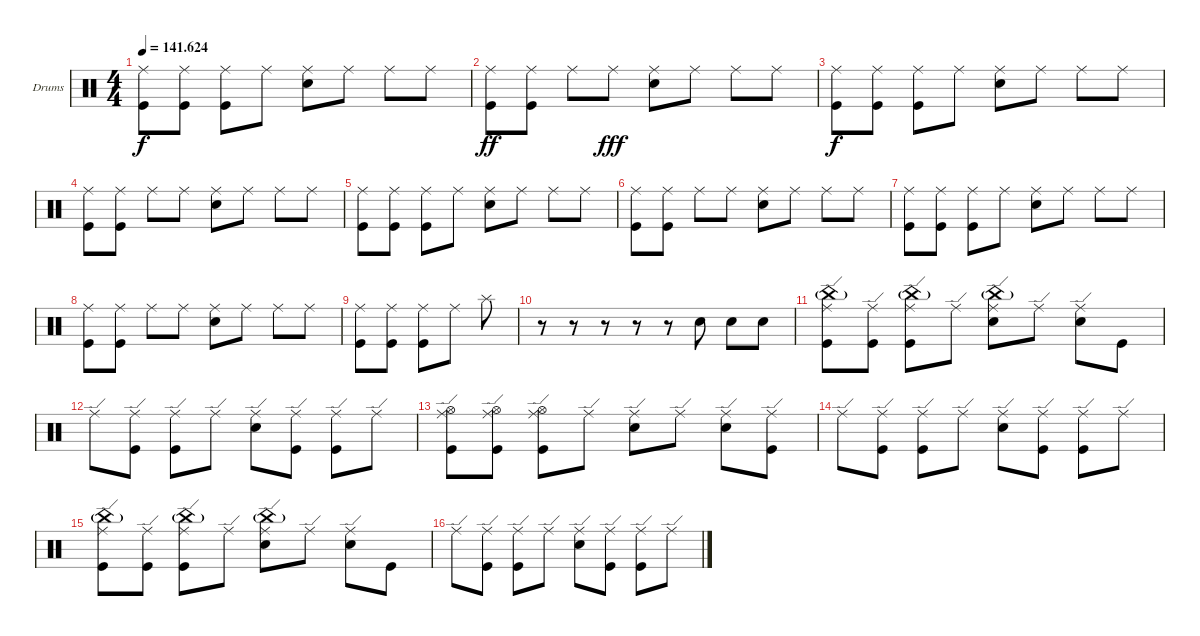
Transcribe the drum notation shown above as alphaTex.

\defaultSystemsLayout 4
\bracketExtendMode groupsimilarinstruments
\firstSystemTrackNameOrientation horizontal
\otherSystemsTrackNameOrientation horizontal
\track ("Drumkit" "Drums") {instrument percussion}
\staff {score}
\articulation defaults
\ts (4 4)
\tempo
141.624
\accidentals auto
\clef neutral
\ottava regular
\simile none
\ks c
("Ride (middle)" "Kick (hit)").8{dy f} ("Ride (middle)" "Kick (hit)").8 ("Ride (middle)" "Kick (hit)").8 "Ride (middle)".8 ("Ride (middle)" "Snare (hit) 2").8 "Ride (middle)".8 "Ride (middle)".8 "Ride (middle)".8 |
("Ride (middle)" "Kick (hit)").8{dy ff} ("Ride (middle)" "Kick (hit)").8 "Ride (middle)".8 "Ride (middle)".8{dy fff} ("Ride (middle)" "Snare (hit) 2").8 "Ride (middle)".8 "Ride (middle)".8 "Ride (middle)".8 |
("Ride (middle)" "Kick (hit)").8{dy f} ("Ride (middle)" "Kick (hit)").8 ("Ride (middle)" "Kick (hit)").8 "Ride (middle)".8 ("Ride (middle)" "Snare (hit) 2").8 "Ride (middle)".8 "Ride (middle)".8 "Ride (middle)".8 |
("Ride (middle)" "Kick (hit)").8 ("Ride (middle)" "Kick (hit)").8 "Ride (middle)".8 "Ride (middle)".8 ("Ride (middle)" "Snare (hit) 2").8 "Ride (middle)".8 "Ride (middle)".8 "Ride (middle)".8 |
("Ride (middle)" "Kick (hit)").8 ("Ride (middle)" "Kick (hit)").8 ("Ride (middle)" "Kick (hit)").8 "Ride (middle)".8 ("Ride (middle)" "Snare (hit) 2").8 "Ride (middle)".8 "Ride (middle)".8 "Ride (middle)".8 |
("Ride (middle)" "Kick (hit)").8 ("Ride (middle)" "Kick (hit)").8 "Ride (middle)".8 "Ride (middle)".8 ("Ride (middle)" "Snare (hit) 2").8 "Ride (middle)".8 "Ride (middle)".8 "Ride (middle)".8 |
("Ride (middle)" "Kick (hit)").8 ("Ride (middle)" "Kick (hit)").8 ("Ride (middle)" "Kick (hit)").8 "Ride (middle)".8 ("Ride (middle)" "Snare (hit) 2").8 "Ride (middle)".8 "Ride (middle)".8 "Ride (middle)".8 |
("Ride (middle)" "Kick (hit)").8 ("Ride (middle)" "Kick (hit)").8 "Ride (middle)".8 "Ride (middle)".8 ("Ride (middle)" "Snare (hit) 2").8 "Ride (middle)".8 "Ride (middle)".8 "Ride (middle)".8 |
("Ride (middle)" "Kick (hit)").8 ("Ride (middle)" "Kick (hit)").8 ("Ride (middle)" "Kick (hit)").8 "Ride (middle)".8 "Splash (hit)".8 |
r.8 r.8 r.8 r.8 r.8 "Snare (hit) 2".8 "Snare (hit) 2".8 "Snare (hit) 2".8 |
("Kick (hit)" "Ride (edge)" "China (hit)"{g}).8 ("Kick (hit)" "Ride (edge)").8 ("Kick (hit)" "Ride (edge)" "China (hit)"{g}).8 "Ride (edge)".8 ("Snare (hit) 2" "Ride (edge)" "China (hit)"{g}).8 "Ride (edge)".8 ("Ride (edge)" "Snare (hit) 2").8 "Kick (hit)".8 |
"Ride (edge)".8 ("Kick (hit)" "Ride (edge)").8 ("Ride (edge)" "Kick (hit)").8 "Ride (edge)".8 ("Ride (edge)" "Snare (hit) 2").8 ("Kick (hit)" "Ride (edge)").8 ("Ride (edge)" "Kick (hit)").8 "Ride (edge)".8 |
("Hi-Hat (open)" "Kick (hit)" "Ride (edge)").8 ("Hi-Hat (open)" "Kick (hit)" "Ride (edge)").8 ("Hi-Hat (open)" "Kick (hit)" "Ride (edge)").8 "Ride (edge)".8 ("Ride (edge)" "Snare (hit) 2").8 "Ride (edge)".8 ("Ride (edge)" "Snare (hit) 2").8 ("Ride (edge)" "Kick (hit)").8 |
"Ride (edge)".8 ("Kick (hit)" "Ride (edge)").8 ("Ride (edge)" "Kick (hit)").8 "Ride (edge)".8 ("Ride (edge)" "Snare (hit) 2").8 ("Kick (hit)" "Ride (edge)").8 ("Ride (edge)" "Kick (hit)").8 "Ride (edge)".8 |
("Kick (hit)" "Ride (edge)" "China (hit)"{g}).8 ("Kick (hit)" "Ride (edge)").8 ("Kick (hit)" "Ride (edge)" "China (hit)"{g}).8 "Ride (edge)".8 ("Snare (hit) 2" "Ride (edge)" "China (hit)"{g}).8 "Ride (edge)".8 ("Ride (edge)" "Snare (hit) 2").8 "Kick (hit)".8 |
"Ride (edge)".8 ("Kick (hit)" "Ride (edge)").8 ("Ride (edge)" "Kick (hit)").8 "Ride (edge)".8 ("Ride (edge)" "Snare (hit) 2").8 ("Kick (hit)" "Ride (edge)").8 ("Ride (edge)" "Kick (hit)").8 "Ride (edge)".8
